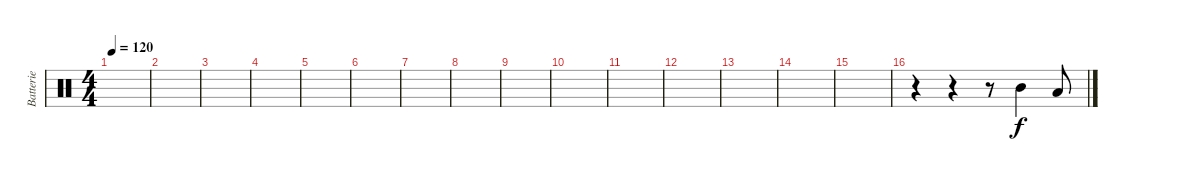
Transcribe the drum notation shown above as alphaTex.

\track ("Batterie" "Batterie") {instrument percussion}
\staff {score}
\articulation defaults
\ts (4 4)
\tempo 120
\clef neutral
\ks c
|
|
|
|
|
|
|
|
|
|
|
|
|
|
|
r.4 r.4 r.8 "Mid Tom (hit)".4 "Low Tom (hit)".8
